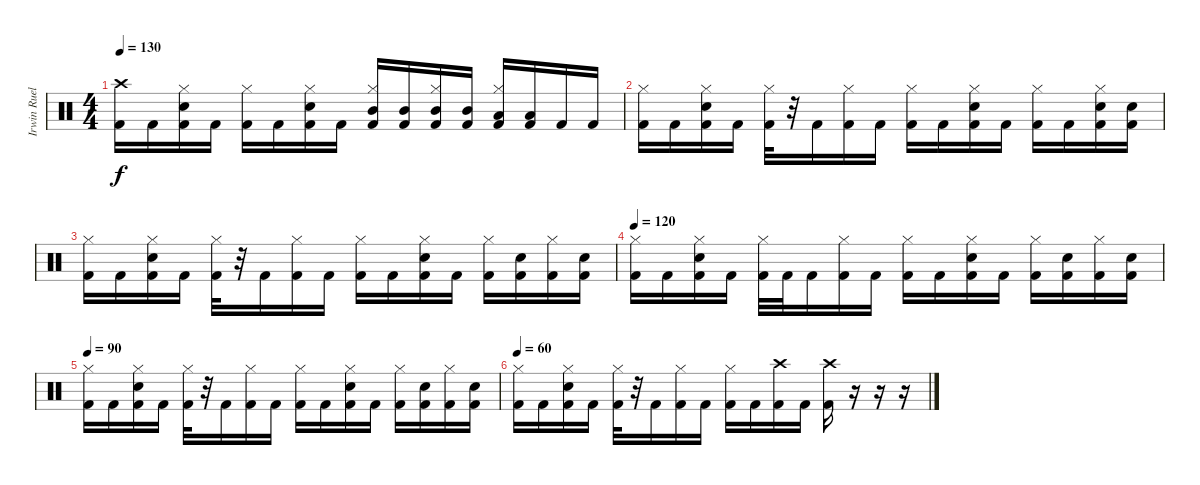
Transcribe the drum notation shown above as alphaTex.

\track ("Irwin Ruelas (Drums)" "Irwin Ruel") {instrument percussion}
\staff {score}
\articulation defaults
\ts (4 4)
\tempo 130
\clef neutral
\ks c
("Crash high (hit)" "Kick (hit) 2").16{dy f} "Kick (hit) 2".16 ("Hi-Hat (closed)" "Snare (hit) 2" "Kick (hit) 2").16 "Kick (hit) 2".16 ("Hi-Hat (closed)" "Kick (hit) 2").16 "Kick (hit) 2".16 ("Hi-Hat (closed)" "Snare (hit) 2" "Kick (hit) 2").16 "Kick (hit) 2".16 ("Hi-Hat (closed)" "Mid Tom (hit)" "Kick (hit) 2").16 ("Mid Tom (hit)" "Kick (hit) 2").16 ("Hi-Hat (closed)" "Mid Tom (hit)" "Kick (hit) 2").16 ("Mid Tom (hit)" "Kick (hit) 2").16 ("Hi-Hat (closed)" "Low Tom (hit)" "Kick (hit) 2").16 ("Low Tom (hit)" "Kick (hit) 2").16 "Kick (hit) 2".16 "Kick (hit) 2".16 |
("Hi-Hat (closed)" "Kick (hit) 2").16 "Kick (hit) 2".16 ("Hi-Hat (closed)" "Snare (hit) 2" "Kick (hit) 2").16 "Kick (hit) 2".16 ("Hi-Hat (closed)" "Kick (hit) 2").32 r.32 "Kick (hit) 2".16 ("Hi-Hat (closed)" "Kick (hit) 2").16 "Kick (hit) 2".16 ("Hi-Hat (closed)" "Kick (hit) 2").16 "Kick (hit) 2".16 ("Hi-Hat (closed)" "Snare (hit) 2" "Kick (hit) 2").16 "Kick (hit) 2".16 ("Hi-Hat (closed)" "Kick (hit) 2").16 "Kick (hit) 2".16 ("Hi-Hat (closed)" "Snare (hit) 2" "Kick (hit) 2").16 ("Snare (hit) 2" "Kick (hit) 2").16 |
("Hi-Hat (closed)" "Kick (hit) 2").16 "Kick (hit) 2".16 ("Hi-Hat (closed)" "Snare (hit) 2" "Kick (hit) 2").16 "Kick (hit) 2".16 ("Hi-Hat (closed)" "Kick (hit) 2").32 r.32 "Kick (hit) 2".16 ("Hi-Hat (closed)" "Kick (hit) 2").16 "Kick (hit) 2".16 ("Hi-Hat (closed)" "Kick (hit) 2").16 "Kick (hit) 2".16 ("Hi-Hat (closed)" "Snare (hit) 2" "Kick (hit) 2").16 "Kick (hit) 2".16 ("Hi-Hat (closed)" "Kick (hit) 2").16 ("Snare (hit) 2" "Kick (hit) 2").16 ("Hi-Hat (closed)" "Kick (hit) 2").16 ("Snare (hit) 2" "Kick (hit) 2").16 |
\tempo 120
("Hi-Hat (closed)" "Kick (hit) 2").16 "Kick (hit) 2".16 ("Hi-Hat (closed)" "Snare (hit) 2" "Kick (hit) 2").16 "Kick (hit) 2".16 ("Hi-Hat (closed)" "Kick (hit) 2").32 "Kick (hit) 2".32 "Kick (hit) 2".16 ("Hi-Hat (closed)" "Kick (hit) 2").16 "Kick (hit) 2".16 ("Hi-Hat (closed)" "Kick (hit) 2").16 "Kick (hit) 2".16 ("Hi-Hat (closed)" "Snare (hit) 2" "Kick (hit) 2").16 "Kick (hit) 2".16 ("Hi-Hat (closed)" "Kick (hit) 2").16 ("Snare (hit) 2" "Kick (hit) 2").16 ("Hi-Hat (closed)" "Kick (hit) 2").16 ("Snare (hit) 2" "Kick (hit) 2").16 |
\tempo 90
("Hi-Hat (closed)" "Kick (hit) 2").16 "Kick (hit) 2".16 ("Hi-Hat (closed)" "Snare (hit) 2" "Kick (hit) 2").16 "Kick (hit) 2".16 ("Hi-Hat (closed)" "Kick (hit) 2").32 r.32 "Kick (hit) 2".16 ("Hi-Hat (closed)" "Kick (hit) 2").16 "Kick (hit) 2".16 ("Hi-Hat (closed)" "Kick (hit) 2").16 "Kick (hit) 2".16 ("Hi-Hat (closed)" "Snare (hit) 2" "Kick (hit) 2").16 "Kick (hit) 2".16 ("Hi-Hat (closed)" "Kick (hit) 2").16 ("Snare (hit) 2" "Kick (hit) 2").16 ("Hi-Hat (closed)" "Kick (hit) 2").16 ("Snare (hit) 2" "Kick (hit) 2").16 |
\tempo 60
("Hi-Hat (closed)" "Kick (hit) 2").16 "Kick (hit) 2".16 ("Hi-Hat (closed)" "Snare (hit) 2" "Kick (hit) 2").16 "Kick (hit) 2".16 ("Hi-Hat (closed)" "Kick (hit) 2").32 r.32 "Kick (hit) 2".16 ("Hi-Hat (closed)" "Kick (hit) 2").16 "Kick (hit) 2".16 ("Hi-Hat (closed)" "Kick (hit) 2").16 "Kick (hit) 2".16 ("Crash high (hit)" "Kick (hit) 2").16 "Kick (hit) 2".16 ("Crash high (hit)" "Kick (hit) 2").16 r.16 r.16 r.16
